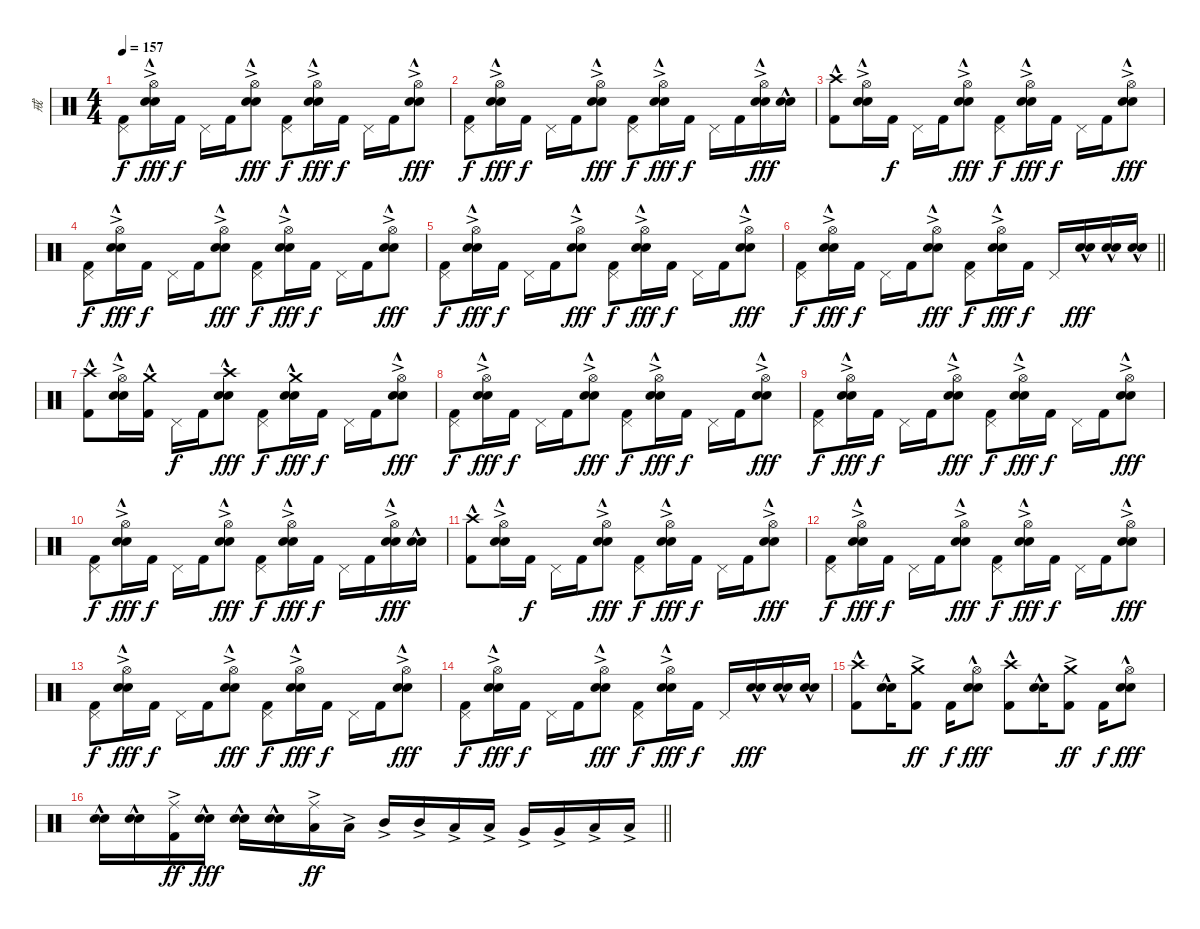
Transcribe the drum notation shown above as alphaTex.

\track ("戒" "戒") {instrument percussion}
\staff {score}
\articulation defaults
\ts (4 4)
\tempo 157
\clef neutral
\ks c
("Pedal Hi-Hat (hit)" "Kick (hit) 2").8{dy f} ("Hi-Hat (open)"{ac} "Electric Snare (hit)"{hac} "Snare (hit) 2").16{dy fff} "Kick (hit) 2".16{dy f} "Pedal Hi-Hat (hit)".16 "Kick (hit) 2".16 ("Hi-Hat (open)"{ac} "Electric Snare (hit)"{hac} "Snare (hit) 2").8{dy fff} ("Pedal Hi-Hat (hit)" "Kick (hit) 2").8{dy f} ("Hi-Hat (open)"{ac} "Electric Snare (hit)"{hac} "Snare (hit) 2").16{dy fff} "Kick (hit) 2".16{dy f} "Pedal Hi-Hat (hit)".16 "Kick (hit) 2".16 ("Hi-Hat (open)"{ac} "Electric Snare (hit)"{hac} "Snare (hit) 2").8{dy fff} |
("Pedal Hi-Hat (hit)" "Kick (hit) 2").8{dy f} ("Hi-Hat (open)"{ac} "Electric Snare (hit)"{hac} "Snare (hit) 2").16{dy fff} "Kick (hit) 2".16{dy f} "Pedal Hi-Hat (hit)".16 "Kick (hit) 2".16 ("Hi-Hat (open)"{ac} "Electric Snare (hit)"{hac} "Snare (hit) 2").8{dy fff} ("Pedal Hi-Hat (hit)" "Kick (hit) 2").8{dy f} ("Hi-Hat (open)"{ac} "Electric Snare (hit)"{hac} "Snare (hit) 2").16{dy fff} "Kick (hit) 2".16{dy f} "Pedal Hi-Hat (hit)".16 "Kick (hit) 2".16 ("Hi-Hat (open)"{ac} "Electric Snare (hit)"{hac} "Snare (hit) 2").16{dy fff} ("Electric Snare (hit)"{hac} "Snare (hit) 2").16 |
("Crash high (hit)"{hac} "Kick (hit) 2").8 ("Hi-Hat (open)"{ac} "Electric Snare (hit)"{hac} "Snare (hit) 2").16 "Kick (hit) 2".16{dy f} "Pedal Hi-Hat (hit)".16 "Kick (hit) 2".16 ("Hi-Hat (open)"{ac} "Electric Snare (hit)"{hac} "Snare (hit) 2").8{dy fff} ("Pedal Hi-Hat (hit)" "Kick (hit) 2").8{dy f} ("Hi-Hat (open)"{ac} "Electric Snare (hit)"{hac} "Snare (hit) 2").16{dy fff} "Kick (hit) 2".16{dy f} "Pedal Hi-Hat (hit)".16 "Kick (hit) 2".16 ("Hi-Hat (open)"{ac} "Electric Snare (hit)"{hac} "Snare (hit) 2").8{dy fff} |
("Pedal Hi-Hat (hit)" "Kick (hit) 2").8{dy f} ("Hi-Hat (open)"{ac} "Electric Snare (hit)"{hac} "Snare (hit) 2").16{dy fff} "Kick (hit) 2".16{dy f} "Pedal Hi-Hat (hit)".16 "Kick (hit) 2".16 ("Hi-Hat (open)"{ac} "Electric Snare (hit)"{hac} "Snare (hit) 2").8{dy fff} ("Pedal Hi-Hat (hit)" "Kick (hit) 2").8{dy f} ("Hi-Hat (open)"{ac} "Electric Snare (hit)"{hac} "Snare (hit) 2").16{dy fff} "Kick (hit) 2".16{dy f} "Pedal Hi-Hat (hit)".16 "Kick (hit) 2".16 ("Hi-Hat (open)"{ac} "Electric Snare (hit)"{hac} "Snare (hit) 2").8{dy fff} |
("Pedal Hi-Hat (hit)" "Kick (hit) 2").8{dy f} ("Hi-Hat (open)"{ac} "Electric Snare (hit)"{hac} "Snare (hit) 2").16{dy fff} "Kick (hit) 2".16{dy f} "Pedal Hi-Hat (hit)".16 "Kick (hit) 2".16 ("Hi-Hat (open)"{ac} "Electric Snare (hit)"{hac} "Snare (hit) 2").8{dy fff} ("Pedal Hi-Hat (hit)" "Kick (hit) 2").8{dy f} ("Hi-Hat (open)"{ac} "Electric Snare (hit)"{hac} "Snare (hit) 2").16{dy fff} "Kick (hit) 2".16{dy f} "Pedal Hi-Hat (hit)".16 "Kick (hit) 2".16 ("Hi-Hat (open)"{ac} "Electric Snare (hit)"{hac} "Snare (hit) 2").8{dy fff} |
\barLineRight lightlight
("Pedal Hi-Hat (hit)" "Kick (hit) 2").8{dy f} ("Hi-Hat (open)"{ac} "Electric Snare (hit)"{hac} "Snare (hit) 2").16{dy fff} "Kick (hit) 2".16{dy f} "Pedal Hi-Hat (hit)".16 "Kick (hit) 2".16 ("Hi-Hat (open)"{ac} "Electric Snare (hit)"{hac} "Snare (hit) 2").8{dy fff} ("Pedal Hi-Hat (hit)" "Kick (hit) 2").8{dy f} ("Hi-Hat (open)"{ac} "Electric Snare (hit)"{hac} "Snare (hit) 2").16{dy fff} "Kick (hit) 2".16{dy f} "Pedal Hi-Hat (hit)".16 ("Electric Snare (hit)"{hac} "Snare (hit) 2").16{dy fff} ("Electric Snare (hit)"{hac} "Snare (hit) 2").16 ("Electric Snare (hit)"{hac} "Snare (hit) 2").16 |
\section ("" "")
("Crash high (hit)"{hac} "Kick (hit) 2").8 ("Hi-Hat (open)"{ac} "Electric Snare (hit)"{hac} "Snare (hit) 2").16 ("Crash medium (hit)"{hac} "Kick (hit) 2").16 "Pedal Hi-Hat (hit)".16{dy f} "Kick (hit) 2".16 ("Crash high (hit)"{hac} "Electric Snare (hit)"{hac} "Snare (hit) 2").8{dy fff} ("Pedal Hi-Hat (hit)" "Kick (hit) 2").8{dy f} ("Crash medium (hit)"{hac} "Electric Snare (hit)"{hac} "Snare (hit) 2").16{dy fff} "Kick (hit) 2".16{dy f} "Pedal Hi-Hat (hit)".16 "Kick (hit) 2".16 ("Hi-Hat (open)"{ac} "Electric Snare (hit)"{hac} "Snare (hit) 2").8{dy fff} |
("Pedal Hi-Hat (hit)" "Kick (hit) 2").8{dy f} ("Hi-Hat (open)"{ac} "Electric Snare (hit)"{hac} "Snare (hit) 2").16{dy fff} "Kick (hit) 2".16{dy f} "Pedal Hi-Hat (hit)".16 "Kick (hit) 2".16 ("Hi-Hat (open)"{ac} "Electric Snare (hit)"{hac} "Snare (hit) 2").8{dy fff} ("Pedal Hi-Hat (hit)" "Kick (hit) 2").8{dy f} ("Hi-Hat (open)"{ac} "Electric Snare (hit)"{hac} "Snare (hit) 2").16{dy fff} "Kick (hit) 2".16{dy f} "Pedal Hi-Hat (hit)".16 "Kick (hit) 2".16 ("Hi-Hat (open)"{ac} "Electric Snare (hit)"{hac} "Snare (hit) 2").8{dy fff} |
("Pedal Hi-Hat (hit)" "Kick (hit) 2").8{dy f} ("Hi-Hat (open)"{ac} "Electric Snare (hit)"{hac} "Snare (hit) 2").16{dy fff} "Kick (hit) 2".16{dy f} "Pedal Hi-Hat (hit)".16 "Kick (hit) 2".16 ("Hi-Hat (open)"{ac} "Electric Snare (hit)"{hac} "Snare (hit) 2").8{dy fff} ("Pedal Hi-Hat (hit)" "Kick (hit) 2").8{dy f} ("Hi-Hat (open)"{ac} "Electric Snare (hit)"{hac} "Snare (hit) 2").16{dy fff} "Kick (hit) 2".16{dy f} "Pedal Hi-Hat (hit)".16 "Kick (hit) 2".16 ("Hi-Hat (open)"{ac} "Electric Snare (hit)"{hac} "Snare (hit) 2").8{dy fff} |
("Pedal Hi-Hat (hit)" "Kick (hit) 2").8{dy f} ("Hi-Hat (open)"{ac} "Electric Snare (hit)"{hac} "Snare (hit) 2").16{dy fff} "Kick (hit) 2".16{dy f} "Pedal Hi-Hat (hit)".16 "Kick (hit) 2".16 ("Hi-Hat (open)"{ac} "Electric Snare (hit)"{hac} "Snare (hit) 2").8{dy fff} ("Pedal Hi-Hat (hit)" "Kick (hit) 2").8{dy f} ("Hi-Hat (open)"{ac} "Electric Snare (hit)"{hac} "Snare (hit) 2").16{dy fff} "Kick (hit) 2".16{dy f} "Pedal Hi-Hat (hit)".16 "Kick (hit) 2".16 ("Hi-Hat (open)"{ac} "Electric Snare (hit)"{hac} "Snare (hit) 2").16{dy fff} ("Electric Snare (hit)"{hac} "Snare (hit) 2").16 |
("Crash high (hit)"{hac} "Kick (hit) 2").8 ("Hi-Hat (open)"{ac} "Electric Snare (hit)"{hac} "Snare (hit) 2").16 "Kick (hit) 2".16{dy f} "Pedal Hi-Hat (hit)".16 "Kick (hit) 2".16 ("Hi-Hat (open)"{ac} "Electric Snare (hit)"{hac} "Snare (hit) 2").8{dy fff} ("Pedal Hi-Hat (hit)" "Kick (hit) 2").8{dy f} ("Hi-Hat (open)"{ac} "Electric Snare (hit)"{hac} "Snare (hit) 2").16{dy fff} "Kick (hit) 2".16{dy f} "Pedal Hi-Hat (hit)".16 "Kick (hit) 2".16 ("Hi-Hat (open)"{ac} "Electric Snare (hit)"{hac} "Snare (hit) 2").8{dy fff} |
("Pedal Hi-Hat (hit)" "Kick (hit) 2").8{dy f} ("Hi-Hat (open)"{ac} "Electric Snare (hit)"{hac} "Snare (hit) 2").16{dy fff} "Kick (hit) 2".16{dy f} "Pedal Hi-Hat (hit)".16 "Kick (hit) 2".16 ("Hi-Hat (open)"{ac} "Electric Snare (hit)"{hac} "Snare (hit) 2").8{dy fff} ("Pedal Hi-Hat (hit)" "Kick (hit) 2").8{dy f} ("Hi-Hat (open)"{ac} "Electric Snare (hit)"{hac} "Snare (hit) 2").16{dy fff} "Kick (hit) 2".16{dy f} "Pedal Hi-Hat (hit)".16 "Kick (hit) 2".16 ("Hi-Hat (open)"{ac} "Electric Snare (hit)"{hac} "Snare (hit) 2").8{dy fff} |
("Pedal Hi-Hat (hit)" "Kick (hit) 2").8{dy f} ("Hi-Hat (open)"{ac} "Electric Snare (hit)"{hac} "Snare (hit) 2").16{dy fff} "Kick (hit) 2".16{dy f} "Pedal Hi-Hat (hit)".16 "Kick (hit) 2".16 ("Hi-Hat (open)"{ac} "Electric Snare (hit)"{hac} "Snare (hit) 2").8{dy fff} ("Pedal Hi-Hat (hit)" "Kick (hit) 2").8{dy f} ("Hi-Hat (open)"{ac} "Electric Snare (hit)"{hac} "Snare (hit) 2").16{dy fff} "Kick (hit) 2".16{dy f} "Pedal Hi-Hat (hit)".16 "Kick (hit) 2".16 ("Hi-Hat (open)"{ac} "Electric Snare (hit)"{hac} "Snare (hit) 2").8{dy fff} |
("Pedal Hi-Hat (hit)" "Kick (hit) 2").8{dy f} ("Hi-Hat (open)"{ac} "Electric Snare (hit)"{hac} "Snare (hit) 2").16{dy fff} "Kick (hit) 2".16{dy f} "Pedal Hi-Hat (hit)".16 "Kick (hit) 2".16 ("Hi-Hat (open)"{ac} "Electric Snare (hit)"{hac} "Snare (hit) 2").8{dy fff} ("Pedal Hi-Hat (hit)" "Kick (hit) 2").8{dy f} ("Hi-Hat (open)"{ac} "Electric Snare (hit)"{hac} "Snare (hit) 2").16{dy fff} "Kick (hit) 2".16{dy f} "Pedal Hi-Hat (hit)".16 ("Electric Snare (hit)"{hac} "Snare (hit) 2").16{dy fff} ("Electric Snare (hit)"{hac} "Snare (hit) 2").16 ("Electric Snare (hit)"{hac} "Snare (hit) 2").16 |
("Crash high (hit)"{hac} "Kick (hit) 2").8 ("Electric Snare (hit)"{hac} "Snare (hit) 2").16 ("Crash medium (hit)"{ac} "Kick (hit) 2").8{dy ff} "Kick (hit) 2".16{dy f} ("Hi-Hat (open)" "Electric Snare (hit)"{hac} "Snare (hit) 2").8{dy fff} ("Crash high (hit)"{hac} "Kick (hit) 2").8 ("Electric Snare (hit)"{hac} "Snare (hit) 2").16 ("Crash medium (hit)"{ac} "Kick (hit) 2").8{dy ff} "Kick (hit) 2".16{dy f} ("Hi-Hat (open)" "Electric Snare (hit)"{hac} "Snare (hit) 2").8{dy fff} |
\barLineRight lightlight
("Electric Snare (hit)"{hac} "Snare (hit) 2").16 ("Electric Snare (hit)"{hac} "Snare (hit) 2").16 ("Ride (middle)"{ac} "Kick (hit) 2").16{dy ff} ("Electric Snare (hit)"{hac} "Snare (hit) 2").16{dy fff} ("Electric Snare (hit)"{hac} "Snare (hit) 2").16 ("Electric Snare (hit)"{hac} "Snare (hit) 2").16 ("Ride (middle)"{ac} "Low Tom (hit)"{ac}).16{dy ff} "Low Tom (hit)"{ac}.16 "Mid Tom (hit)"{ac}.16 "Mid Tom (hit)"{ac}.16 "Low Tom (hit)"{ac}.16 "Low Tom (hit)"{ac}.16 "Very Low Tom (hit)"{ac}.16 "Very Low Tom (hit)"{ac}.16 "Low Floor Tom (hit)"{ac}.16 "Low Floor Tom (hit)"{ac}.16
